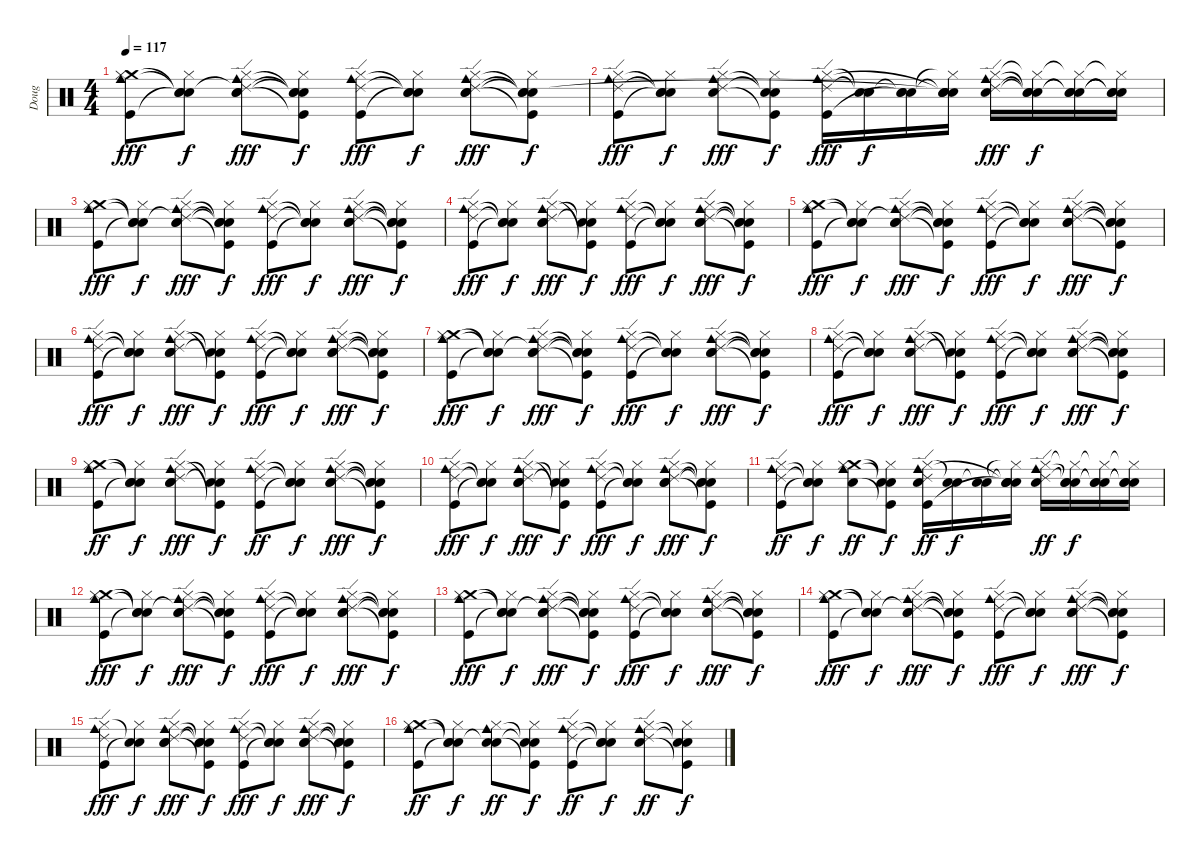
\track ("Doug" "Doug") {instrument percussion}
\staff {score}
\articulation defaults
\ts (4 4)
\tempo 117
\clef neutral
\ks c
("Crash medium (hit)" "Hi-Hat (closed)" "Kick (hit)" "Cowbell medium (hit)").8{dy fff} ("Snare (hit)"{t} "Hi-Hat (closed)" "Snare (hit)"{t} "Snare (hit)"{t}).8{dy f} ("Ride (edge) 2"{t} "Hi-Hat (closed)" "Snare (hit) 2" "Cowbell medium (hit)" "Hand Clap (hit)").8{dy fff} ("Snare (hit)"{t} "Hi-Hat (closed)" "Kick (hit)"{t} "Snare (hit)"{t} "Snare (hit)"{t}).8{dy f} ("Ride (edge) 2" "Hi-Hat (closed)" "Kick (hit)" "Cowbell medium (hit)").8{dy fff} ("Snare (hit)"{t} "Hi-Hat (closed)" "Snare (hit)"{t} "Snare (hit)"{t}).8{dy f} ("Ride (edge) 2" "Hi-Hat (closed)" "Snare (hit) 2" "Cowbell medium (hit)" "Hand Clap (hit)").8{dy fff} ("Snare (hit)"{t} "Hi-Hat (closed)" "Kick (hit)"{t} "Snare (hit)"{t} "Snare (hit)"{t}).8{dy f} |
("Ride (edge) 2" "Hi-Hat (closed)" "Kick (hit)" "Cowbell medium (hit)").8{dy fff} ("Snare (hit)"{t} "Hi-Hat (closed)" "Snare (hit)"{t} "Snare (hit)"{t}).8{dy f} ("Ride (edge) 2" "Hi-Hat (closed)" "Snare (hit) 2" "Cowbell medium (hit)").8{dy fff} ("Snare (hit)"{t} "Hi-Hat (closed)" "Kick (hit)"{t} "Snare (hit)"{t}).8{dy f} ("Ride (edge) 2" "Hi-Hat (closed)" "Kick (hit)" "Cowbell medium (hit)").16{dy fff} ("Snare (hit)"{t} "Snare (hit)"{t}).16{dy f} ("Snare (hit)"{t} "Snare (hit) 2" "Snare (hit)"{t}).16 ("Snare (hit)"{t} "Hi-Hat (closed)"{t} "Snare (hit) 2" "Snare (hit)"{t} "Snare (hit)"{t}).16 ("Ride (edge) 2" "Hi-Hat (closed)" "Snare (hit) 2" "Cowbell medium (hit)").16{dy fff} ("Snare (hit)"{t} "Hi-Hat (closed)"{t} "Snare (hit) 2"{t} "Snare (hit)"{t}).16{dy f} ("Snare (hit)"{t} "Hi-Hat (closed)"{t} "Snare (hit) 2" "Snare (hit)"{t}).16 ("Snare (hit)"{t} "Hi-Hat (closed)"{t} "Snare (hit) 2"{t} "Snare (hit)"{t}).16 |
("Crash medium (hit)" "Hi-Hat (closed)" "Kick (hit)" "Cowbell medium (hit)").8{dy fff} ("Snare (hit)"{t} "Hi-Hat (closed)" "Snare (hit)"{t} "Snare (hit)"{t}).8{dy f} ("Ride (edge) 2"{t} "Hi-Hat (closed)" "Snare (hit) 2" "Cowbell medium (hit)" "Hand Clap (hit)").8{dy fff} ("Snare (hit)"{t} "Hi-Hat (closed)" "Kick (hit)"{t} "Snare (hit)"{t} "Snare (hit)"{t}).8{dy f} ("Ride (edge) 2" "Hi-Hat (closed)" "Kick (hit)" "Cowbell medium (hit)").8{dy fff} ("Snare (hit)"{t} "Hi-Hat (closed)" "Snare (hit)"{t} "Snare (hit)"{t}).8{dy f} ("Ride (edge) 2" "Hi-Hat (closed)" "Snare (hit) 2" "Cowbell medium (hit)" "Hand Clap (hit)").8{dy fff} ("Snare (hit)"{t} "Hi-Hat (closed)" "Kick (hit)"{t} "Snare (hit)"{t} "Snare (hit)"{t}).8{dy f} |
("Ride (edge) 2" "Hi-Hat (closed)" "Kick (hit)" "Cowbell medium (hit)").8{dy fff} ("Snare (hit)"{t} "Hi-Hat (closed)" "Snare (hit)"{t} "Snare (hit)"{t}).8{dy f} ("Ride (edge) 2" "Hi-Hat (closed)" "Snare (hit) 2" "Cowbell medium (hit)" "Hand Clap (hit)").8{dy fff} ("Hi-Hat (closed)" "Kick (hit)"{t} "Snare (hit)"{t} "Snare (hit)"{t}).8{dy f} ("Ride (edge) 2" "Hi-Hat (closed)" "Kick (hit)" "Cowbell medium (hit)").8{dy fff} ("Snare (hit)"{t} "Hi-Hat (closed)" "Snare (hit)"{t} "Snare (hit)"{t}).8{dy f} ("Ride (edge) 2" "Hi-Hat (closed)" "Snare (hit) 2" "Cowbell medium (hit)" "Hand Clap (hit)").8{dy fff} ("Snare (hit)"{t} "Hi-Hat (closed)" "Kick (hit)"{t} "Snare (hit)"{t} "Snare (hit)"{t}).8{dy f} |
("Crash medium (hit)" "Hi-Hat (closed)" "Kick (hit)" "Cowbell medium (hit)").8{dy fff} ("Snare (hit)"{t} "Hi-Hat (closed)" "Snare (hit)"{t} "Snare (hit)"{t}).8{dy f} ("Ride (edge) 2"{t} "Hi-Hat (closed)" "Snare (hit) 2" "Cowbell medium (hit)" "Hand Clap (hit)").8{dy fff} ("Snare (hit)"{t} "Hi-Hat (closed)" "Kick (hit)"{t} "Snare (hit)"{t} "Snare (hit)"{t}).8{dy f} ("Ride (edge) 2" "Hi-Hat (closed)" "Kick (hit)" "Cowbell medium (hit)").8{dy fff} ("Snare (hit)"{t} "Hi-Hat (closed)" "Snare (hit)"{t} "Snare (hit)"{t}).8{dy f} ("Ride (edge) 2" "Hi-Hat (closed)" "Snare (hit) 2" "Cowbell medium (hit)" "Hand Clap (hit)").8{dy fff} ("Snare (hit)"{t} "Hi-Hat (closed)" "Kick (hit)"{t} "Snare (hit)"{t} "Snare (hit)"{t}).8{dy f} |
("Ride (edge) 2" "Hi-Hat (closed)" "Kick (hit)" "Cowbell medium (hit)").8{dy fff} ("Snare (hit)"{t} "Hi-Hat (closed)" "Snare (hit)"{t} "Snare (hit)"{t}).8{dy f} ("Ride (edge) 2" "Hi-Hat (closed)" "Snare (hit) 2" "Cowbell medium (hit)" "Hand Clap (hit)").8{dy fff} ("Hi-Hat (closed)" "Kick (hit)"{t} "Snare (hit)"{t} "Snare (hit)"{t}).8{dy f} ("Ride (edge) 2" "Hi-Hat (closed)" "Kick (hit)" "Cowbell medium (hit)").8{dy fff} ("Snare (hit)"{t} "Hi-Hat (closed)" "Snare (hit)"{t} "Snare (hit)"{t}).8{dy f} ("Ride (edge) 2" "Hi-Hat (closed)" "Snare (hit) 2" "Cowbell medium (hit)" "Hand Clap (hit)").8{dy fff} ("Snare (hit)"{t} "Hi-Hat (closed)" "Kick (hit)"{t} "Snare (hit)"{t} "Snare (hit)"{t}).8{dy f} |
("Crash medium (hit)" "Hi-Hat (closed)" "Kick (hit)" "Cowbell medium (hit)").8{dy fff} ("Snare (hit)"{t} "Hi-Hat (closed)" "Snare (hit)"{t} "Snare (hit)"{t}).8{dy f} ("Ride (edge) 2"{t} "Hi-Hat (closed)" "Snare (hit) 2" "Cowbell medium (hit)" "Hand Clap (hit)").8{dy fff} ("Snare (hit)"{t} "Hi-Hat (closed)" "Kick (hit)"{t} "Snare (hit)"{t} "Snare (hit)"{t}).8{dy f} ("Ride (edge) 2" "Hi-Hat (closed)" "Kick (hit)" "Cowbell medium (hit)").8{dy fff} ("Snare (hit)"{t} "Hi-Hat (closed)" "Snare (hit)"{t} "Snare (hit)"{t}).8{dy f} ("Ride (edge) 2" "Hi-Hat (closed)" "Snare (hit) 2" "Cowbell medium (hit)" "Hand Clap (hit)").8{dy fff} ("Snare (hit)"{t} "Hi-Hat (closed)" "Kick (hit)"{t} "Snare (hit)"{t} "Snare (hit)"{t}).8{dy f} |
("Ride (edge) 2" "Hi-Hat (closed)" "Kick (hit)" "Cowbell medium (hit)").8{dy fff} ("Snare (hit)"{t} "Hi-Hat (closed)" "Snare (hit)"{t} "Snare (hit)"{t}).8{dy f} ("Ride (edge) 2" "Hi-Hat (closed)" "Snare (hit) 2" "Cowbell medium (hit)" "Hand Clap (hit)").8{dy fff} ("Hi-Hat (closed)" "Kick (hit)"{t} "Snare (hit)"{t} "Snare (hit)"{t}).8{dy f} ("Ride (edge) 2" "Hi-Hat (closed)" "Kick (hit)" "Cowbell medium (hit)").8{dy fff} ("Snare (hit)"{t} "Hi-Hat (closed)" "Snare (hit)"{t} "Snare (hit)"{t}).8{dy f} ("Ride (edge) 2" "Hi-Hat (closed)" "Snare (hit) 2" "Cowbell medium (hit)" "Hand Clap (hit)").8{dy fff} ("Snare (hit)"{t} "Hi-Hat (closed)" "Kick (hit)"{t} "Snare (hit)"{t} "Snare (hit)"{t}).8{dy f} |
("Crash medium (hit)" "Hi-Hat (closed)" "Kick (hit)" "Cowbell medium (hit)").8{dy ff} ("Snare (hit)"{t} "Hi-Hat (closed)" "Snare (hit)"{t} "Snare (hit)"{t}).8{dy f} ("Ride (edge) 2" "Hi-Hat (closed)" "Snare (hit) 2" "Cowbell medium (hit)" "Hand Clap (hit)").8{dy fff} ("Hi-Hat (closed)" "Kick (hit)"{t} "Snare (hit)"{t} "Snare (hit)"{t}).8{dy f} ("Ride (edge) 2" "Hi-Hat (closed)" "Kick (hit)" "Cowbell medium (hit)").8{dy ff} ("Snare (hit)"{t} "Hi-Hat (closed)" "Snare (hit)"{t} "Snare (hit)"{t}).8{dy f} ("Ride (edge) 2" "Hi-Hat (closed)" "Snare (hit) 2" "Cowbell medium (hit)" "Hand Clap (hit)").8{dy fff} ("Snare (hit)"{t} "Hi-Hat (closed)" "Kick (hit)"{t} "Snare (hit)"{t} "Snare (hit)"{t}).8{dy f} |
("Ride (edge) 2" "Hi-Hat (closed)" "Kick (hit)" "Cowbell medium (hit)").8{dy fff} ("Snare (hit)"{t} "Hi-Hat (closed)" "Snare (hit)"{t} "Snare (hit)"{t}).8{dy f} ("Ride (edge) 2" "Hi-Hat (closed)" "Snare (hit) 2" "Cowbell medium (hit)" "Hand Clap (hit)").8{dy fff} ("Hi-Hat (closed)" "Kick (hit)"{t} "Snare (hit)"{t} "Snare (hit)"{t}).8{dy f} ("Ride (edge) 2" "Hi-Hat (closed)" "Kick (hit)" "Cowbell medium (hit)").8{dy fff} ("Snare (hit)"{t} "Hi-Hat (closed)" "Snare (hit)"{t} "Snare (hit)"{t}).8{dy f} ("Ride (edge) 2" "Hi-Hat (closed)" "Snare (hit) 2" "Cowbell medium (hit)" "Hand Clap (hit)").8{dy fff} ("Snare (hit)"{t} "Hi-Hat (closed)" "Kick (hit)"{t} "Snare (hit)"{t} "Snare (hit)"{t}).8{dy f} |
("Ride (edge) 2" "Hi-Hat (closed)" "Kick (hit)" "Cowbell medium (hit)").8{dy ff} ("Snare (hit)"{t} "Hi-Hat (closed)" "Snare (hit)"{t} "Snare (hit)"{t}).8{dy f} ("Crash medium (hit)" "Hi-Hat (closed)" "Snare (hit) 2" "Cowbell medium (hit)").8{dy ff} ("Snare (hit)"{t} "Hi-Hat (closed)" "Kick (hit)"{t} "Snare (hit)"{t}).8{dy f} ("Ride (edge) 2" "Hi-Hat (closed)" "Snare (hit) 2" "Kick (hit)" "Cowbell medium (hit)").16{dy ff} ("Snare (hit) 2" "Snare (hit)"{t}).16{dy f} ("Snare (hit) 2" "Snare (hit)"{t}).16 ("Snare (hit)"{t} "Hi-Hat (closed)"{t} "Snare (hit) 2" "Snare (hit)"{t} "Snare (hit)"{t}).16 ("Ride (edge) 2" "Hi-Hat (closed)" "Snare (hit) 2" "Cowbell medium (hit)").16{dy ff} ("Snare (hit)"{t} "Hi-Hat (closed)"{t} "Snare (hit) 2" "Snare (hit)"{t}).16{dy f} ("Snare (hit)"{t} "Hi-Hat (closed)"{t} "Snare (hit) 2" "Snare (hit)"{t}).16 ("Snare (hit)"{t} "Hi-Hat (closed)"{t} "Snare (hit) 2" "Snare (hit)"{t}).16 |
("Crash medium (hit)" "Hi-Hat (closed)" "Kick (hit)" "Cowbell medium (hit)").8{dy fff} ("Snare (hit)"{t} "Hi-Hat (closed)" "Snare (hit)"{t} "Snare (hit)"{t}).8{dy f} ("Ride (edge) 2"{t} "Hi-Hat (closed)" "Snare (hit) 2" "Cowbell medium (hit)" "Hand Clap (hit)").8{dy fff} ("Snare (hit)"{t} "Hi-Hat (closed)" "Kick (hit)"{t} "Snare (hit)"{t} "Snare (hit)"{t}).8{dy f} ("Ride (edge) 2" "Hi-Hat (closed)" "Kick (hit)" "Cowbell medium (hit)").8{dy fff} ("Snare (hit)"{t} "Hi-Hat (closed)" "Snare (hit)"{t} "Snare (hit)"{t}).8{dy f} ("Ride (edge) 2" "Hi-Hat (closed)" "Snare (hit) 2" "Cowbell medium (hit)" "Hand Clap (hit)").8{dy fff} ("Snare (hit)"{t} "Hi-Hat (closed)" "Kick (hit)"{t} "Snare (hit)"{t} "Snare (hit)"{t}).8{dy f} |
("Crash medium (hit)" "Hi-Hat (closed)" "Kick (hit)" "Cowbell medium (hit)").8{dy fff} ("Snare (hit)"{t} "Hi-Hat (closed)" "Snare (hit)"{t} "Snare (hit)"{t}).8{dy f} ("Ride (edge) 2"{t} "Hi-Hat (closed)" "Snare (hit) 2" "Cowbell medium (hit)" "Hand Clap (hit)").8{dy fff} ("Snare (hit)"{t} "Hi-Hat (closed)" "Kick (hit)"{t} "Snare (hit)"{t} "Snare (hit)"{t}).8{dy f} ("Ride (edge) 2" "Hi-Hat (closed)" "Kick (hit)" "Cowbell medium (hit)").8{dy fff} ("Snare (hit)"{t} "Hi-Hat (closed)" "Snare (hit)"{t} "Snare (hit)"{t}).8{dy f} ("Ride (edge) 2" "Hi-Hat (closed)" "Snare (hit) 2" "Cowbell medium (hit)" "Hand Clap (hit)").8{dy fff} ("Snare (hit)"{t} "Hi-Hat (closed)" "Kick (hit)"{t} "Snare (hit)"{t} "Snare (hit)"{t}).8{dy f} |
("Crash medium (hit)" "Hi-Hat (closed)" "Kick (hit)" "Cowbell medium (hit)").8{dy fff} ("Snare (hit)"{t} "Hi-Hat (closed)" "Snare (hit)"{t} "Snare (hit)"{t}).8{dy f} ("Ride (edge) 2"{t} "Hi-Hat (closed)" "Snare (hit) 2" "Cowbell medium (hit)" "Hand Clap (hit)").8{dy fff} ("Snare (hit)"{t} "Hi-Hat (closed)" "Kick (hit)"{t} "Snare (hit)"{t} "Snare (hit)"{t}).8{dy f} ("Ride (edge) 2" "Hi-Hat (closed)" "Kick (hit)" "Cowbell medium (hit)").8{dy fff} ("Snare (hit)"{t} "Hi-Hat (closed)" "Snare (hit)"{t} "Snare (hit)"{t}).8{dy f} ("Ride (edge) 2" "Hi-Hat (closed)" "Snare (hit) 2" "Cowbell medium (hit)" "Hand Clap (hit)").8{dy fff} ("Snare (hit)"{t} "Hi-Hat (closed)" "Kick (hit)"{t} "Snare (hit)"{t} "Snare (hit)"{t}).8{dy f} |
("Ride (edge) 2" "Hi-Hat (closed)" "Kick (hit)" "Cowbell medium (hit)").8{dy fff} ("Hi-Hat (closed)" "Snare (hit)"{t} "Snare (hit)"{t}).8{dy f} ("Ride (edge) 2" "Hi-Hat (closed)" "Snare (hit) 2" "Cowbell medium (hit)" "Hand Clap (hit)").8{dy fff} ("Snare (hit)"{t} "Hi-Hat (closed)" "Kick (hit)"{t} "Snare (hit)"{t} "Snare (hit)"{t}).8{dy f} ("Ride (edge) 2" "Hi-Hat (closed)" "Kick (hit)" "Cowbell medium (hit)").8{dy fff} ("Snare (hit)"{t} "Hi-Hat (closed)" "Snare (hit)"{t} "Snare (hit)"{t}).8{dy f} ("Ride (edge) 2" "Hi-Hat (closed)" "Snare (hit) 2" "Cowbell medium (hit)" "Hand Clap (hit)").8{dy fff} ("Snare (hit)"{t} "Hi-Hat (closed)" "Kick (hit)"{t} "Snare (hit)"{t} "Snare (hit)"{t}).8{dy f} |
("Crash medium (hit)" "Hi-Hat (closed)" "Kick (hit)" "Cowbell medium (hit)").8{dy ff} ("Snare (hit)"{t} "Hi-Hat (closed)" "Snare (hit)"{t} "Snare (hit)"{t}).8{dy f} ("Snare (hit)"{t} "Hi-Hat (closed)" "Snare (hit) 2" "Cowbell medium (hit)").8{dy ff} ("Snare (hit)"{t} "Hi-Hat (closed)" "Kick (hit)"{t} "Snare (hit)"{t}).8{dy f} ("Ride (edge) 2" "Hi-Hat (closed)" "Kick (hit)" "Cowbell medium (hit)").8{dy ff} ("Snare (hit)"{t} "Hi-Hat (closed)" "Snare (hit)"{t} "Snare (hit)"{t}).8{dy f} ("Ride (edge) 2" "Hi-Hat (closed)" "Snare (hit) 2" "Cowbell medium (hit)").8{dy ff} ("Snare (hit)"{t} "Hi-Hat (closed)" "Kick (hit)"{t} "Snare (hit)"{t}).8{dy f}
